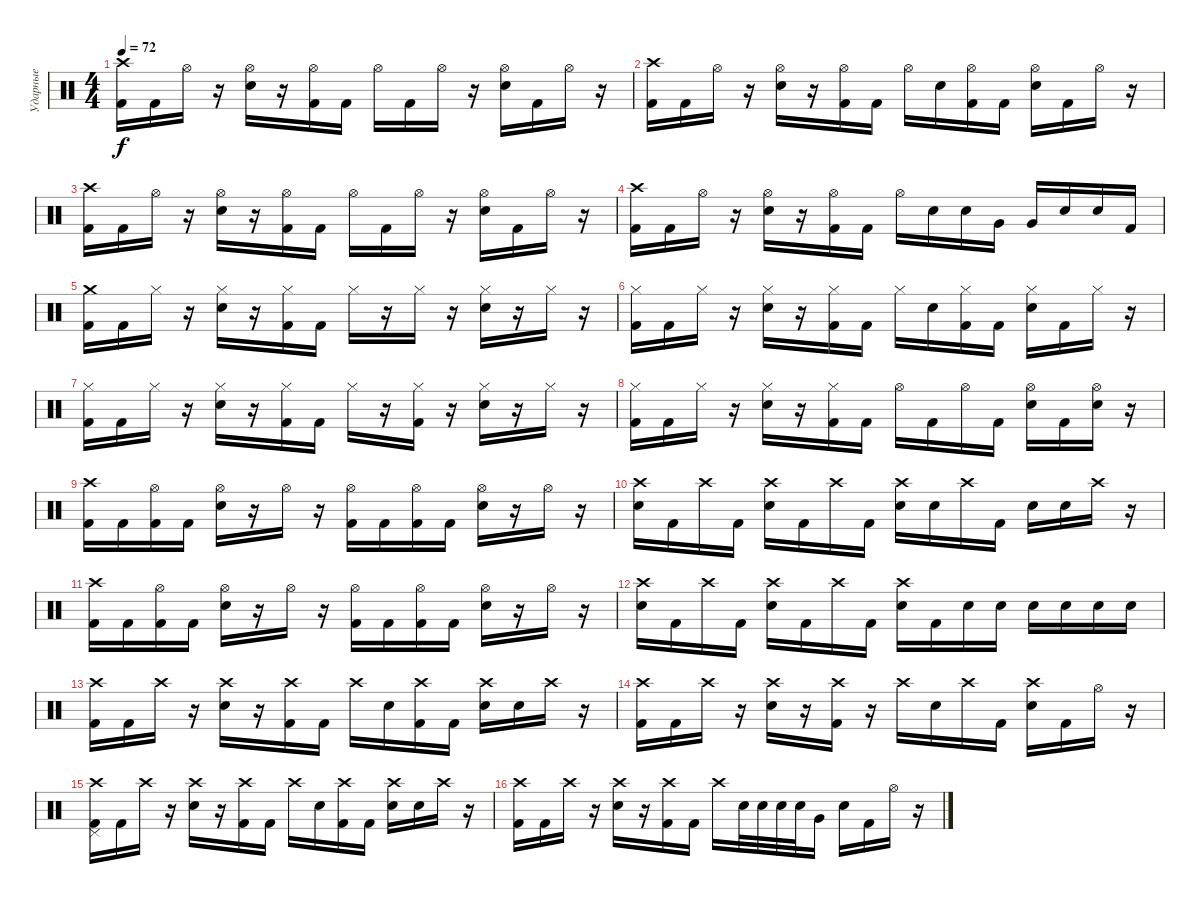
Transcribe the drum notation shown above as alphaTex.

\track ("Ударные" "Ударные") {instrument percussion}
\staff {score}
\articulation defaults
\ts (4 4)
\tempo 72
\clef neutral
\ks c
("Crash high (hit)" "Kick (hit) 2").16{dy f} "Kick (hit) 2".16 "Hi-Hat (open)".16 r.16 ("Hi-Hat (open)" "Electric Snare (hit)").16 r.16 ("Hi-Hat (open)" "Kick (hit) 2").16 "Kick (hit) 2".16 "Hi-Hat (open)".16 "Kick (hit) 2".16 "Hi-Hat (open)".16 r.16 ("Hi-Hat (open)" "Electric Snare (hit)").16 "Kick (hit) 2".16 "Hi-Hat (open)".16 r.16 |
("Crash high (hit)" "Kick (hit) 2").16 "Kick (hit) 2".16 "Hi-Hat (open)".16 r.16 ("Hi-Hat (open)" "Electric Snare (hit)").16 r.16 ("Hi-Hat (open)" "Kick (hit) 2").16 "Kick (hit) 2".16 "Hi-Hat (open)".16 "Electric Snare (hit)".16 ("Hi-Hat (open)" "Kick (hit) 2").16 "Kick (hit) 2".16 ("Hi-Hat (open)" "Electric Snare (hit)").16 "Kick (hit) 2".16 "Hi-Hat (open)".16 r.16 |
("Crash high (hit)" "Kick (hit) 2").16 "Kick (hit) 2".16 "Hi-Hat (open)".16 r.16 ("Hi-Hat (open)" "Electric Snare (hit)").16 r.16 ("Hi-Hat (open)" "Kick (hit) 2").16 "Kick (hit) 2".16 "Hi-Hat (open)".16 "Kick (hit) 2".16 "Hi-Hat (open)".16 r.16 ("Hi-Hat (open)" "Electric Snare (hit)").16 "Kick (hit) 2".16 "Hi-Hat (open)".16 r.16 |
("Crash high (hit)" "Kick (hit) 2").16 "Kick (hit) 2".16 "Hi-Hat (open)".16 r.16 ("Hi-Hat (open)" "Electric Snare (hit)").16 r.16 ("Hi-Hat (open)" "Kick (hit) 2").16 "Kick (hit) 2".16 "Hi-Hat (open)".16 "Electric Snare (hit)".16 "Electric Snare (hit)".16 "Very Low Tom (hit)".16 "Very Low Tom (hit)".16 "Electric Snare (hit)".16 "Electric Snare (hit)".16 "Kick (hit) 2".16 |
("Crash medium (hit)" "Kick (hit) 2").16 "Kick (hit) 2".16 "Hi-Hat (closed)".16 r.16 ("Hi-Hat (closed)" "Electric Snare (hit)").16 r.16 ("Hi-Hat (closed)" "Kick (hit) 2").16 "Kick (hit) 2".16 "Hi-Hat (closed)".16 r.16 "Hi-Hat (closed)".16 r.16 ("Hi-Hat (closed)" "Electric Snare (hit)").16 r.16 "Hi-Hat (closed)".16 r.16 |
("Hi-Hat (closed)" "Kick (hit) 2").16 "Kick (hit) 2".16 "Hi-Hat (closed)".16 r.16 ("Hi-Hat (closed)" "Electric Snare (hit)").16 r.16 ("Hi-Hat (closed)" "Kick (hit) 2").16 "Kick (hit) 2".16 "Hi-Hat (closed)".16 "Electric Snare (hit)".16 ("Hi-Hat (closed)" "Kick (hit) 2").16 "Kick (hit) 2".16 ("Hi-Hat (closed)" "Electric Snare (hit)").16 "Kick (hit) 2".16 "Hi-Hat (closed)".16 r.16 |
("Hi-Hat (closed)" "Kick (hit) 2").16 "Kick (hit) 2".16 "Hi-Hat (closed)".16 r.16 ("Hi-Hat (closed)" "Electric Snare (hit)").16 r.16 ("Hi-Hat (closed)" "Kick (hit) 2").16 "Kick (hit) 2".16 "Hi-Hat (closed)".16 r.16 ("Hi-Hat (closed)" "Kick (hit) 2").16 r.16 ("Hi-Hat (closed)" "Electric Snare (hit)").16 r.16 "Hi-Hat (closed)".16 r.16 |
("Hi-Hat (closed)" "Kick (hit) 2").16 "Kick (hit) 2".16 "Hi-Hat (closed)".16 r.16 ("Hi-Hat (closed)" "Electric Snare (hit)").16 r.16 ("Hi-Hat (closed)" "Kick (hit) 2").16 "Kick (hit) 2".16 "Hi-Hat (open)".16 "Kick (hit) 2".16 "Hi-Hat (open)".16 "Kick (hit) 2".16 ("Hi-Hat (open)" "Electric Snare (hit)").16 "Kick (hit) 2".16 ("Hi-Hat (open)" "Electric Snare (hit)").16 r.16 |
("Crash high (hit)" "Kick (hit) 2").16 "Kick (hit) 2".16 ("Hi-Hat (open)" "Kick (hit) 2").16 "Kick (hit) 2".16 ("Hi-Hat (open)" "Electric Snare (hit)").16 r.16 "Hi-Hat (open)".16 r.16 ("Hi-Hat (open)" "Kick (hit) 2").16 "Kick (hit) 2".16 ("Hi-Hat (open)" "Kick (hit) 2").16 "Kick (hit) 2".16 ("Hi-Hat (open)" "Electric Snare (hit)").16 r.16 "Hi-Hat (open)".16 r.16 |
("Crash high (hit)" "Electric Snare (hit)").16 "Kick (hit) 2".16 "Crash high (hit)".16 "Kick (hit) 2".16 ("Crash high (hit)" "Electric Snare (hit)").16 "Kick (hit) 2".16 "Crash high (hit)".16 "Kick (hit) 2".16 ("Crash high (hit)" "Electric Snare (hit)").16 "Electric Snare (hit)".16 "Crash high (hit)".16 "Kick (hit) 2".16 "Electric Snare (hit)".16 "Electric Snare (hit)".16 "Crash high (hit)".16 r.16 |
("Crash high (hit)" "Kick (hit) 2").16 "Kick (hit) 2".16 ("Hi-Hat (open)" "Kick (hit) 2").16 "Kick (hit) 2".16 ("Hi-Hat (open)" "Electric Snare (hit)").16 r.16 "Hi-Hat (open)".16 r.16 ("Hi-Hat (open)" "Kick (hit) 2").16 "Kick (hit) 2".16 ("Hi-Hat (open)" "Kick (hit) 2").16 "Kick (hit) 2".16 ("Hi-Hat (open)" "Electric Snare (hit)").16 r.16 "Hi-Hat (open)".16 r.16 |
("Crash high (hit)" "Electric Snare (hit)").16 "Kick (hit) 2".16 "Crash high (hit)".16 "Kick (hit) 2".16 ("Crash high (hit)" "Electric Snare (hit)").16 "Kick (hit) 2".16 "Crash high (hit)".16 "Kick (hit) 2".16 ("Crash high (hit)" "Electric Snare (hit)").16 "Kick (hit) 2".16 "Electric Snare (hit)".16 "Electric Snare (hit)".16 "Electric Snare (hit)".16 "Electric Snare (hit)".16 "Electric Snare (hit)".16 "Electric Snare (hit)".16 |
("Crash high (hit)" "Kick (hit) 2").16 "Kick (hit) 2".16 "Crash high (hit)".16 r.16 ("Crash high (hit)" "Electric Snare (hit)").16 r.16 ("Crash high (hit)" "Kick (hit) 2").16 "Kick (hit) 2".16 "Crash high (hit)".16 "Electric Snare (hit)".16 ("Crash high (hit)" "Kick (hit) 2").16 "Kick (hit) 2".16 ("Crash high (hit)" "Electric Snare (hit)").16 "Electric Snare (hit)".16 "Crash high (hit)".16 r.16 |
("Crash high (hit)" "Kick (hit) 2").16 "Kick (hit) 2".16 "Crash high (hit)".16 r.16 ("Crash high (hit)" "Electric Snare (hit)").16 r.16 ("Crash high (hit)" "Kick (hit) 2").16 r.16 "Crash high (hit)".16 "Electric Snare (hit)".16 "Crash high (hit)".16 "Kick (hit) 2".16 ("Crash high (hit)" "Electric Snare (hit)").16 "Kick (hit) 2".16 "Hi-Hat (open)".16 r.16 |
("Crash high (hit)" "Pedal Hi-Hat (hit)" "Kick (hit) 2").16 "Kick (hit) 2".16 "Crash high (hit)".16 r.16 ("Crash high (hit)" "Electric Snare (hit)").16 r.16 ("Crash high (hit)" "Kick (hit) 2").16 "Kick (hit) 2".16 "Crash high (hit)".16 "Electric Snare (hit)".16 ("Crash high (hit)" "Kick (hit) 2").16 "Kick (hit) 2".16 ("Crash high (hit)" "Electric Snare (hit)").16 "Electric Snare (hit)".16 "Crash high (hit)".16 r.16 |
("Crash high (hit)" "Kick (hit) 2").16 "Kick (hit) 2".16 "Crash high (hit)".16 r.16 ("Crash high (hit)" "Electric Snare (hit)").16 r.16 ("Crash high (hit)" "Kick (hit) 2").16 "Kick (hit) 2".16 "Crash high (hit)".16 "Electric Snare (hit)".32 "Electric Snare (hit)".32 "Electric Snare (hit)".32 "Electric Snare (hit)".32 "Very Low Tom (hit)".16 "Electric Snare (hit)".16 "Kick (hit) 2".16 "Hi-Hat (open)".16 r.16
